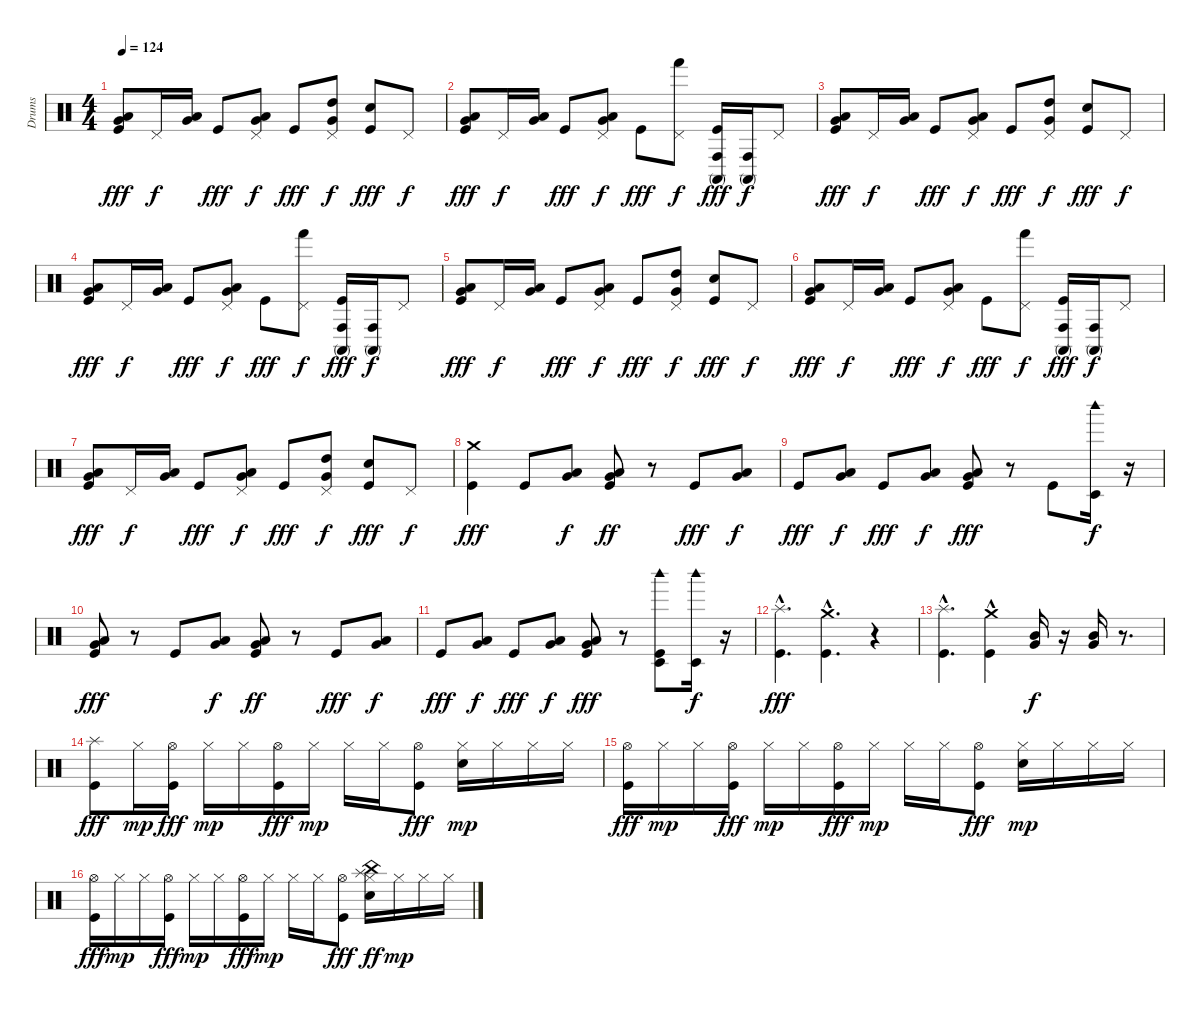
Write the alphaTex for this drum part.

\track ("Drums" "Drums") {instrument percussion}
\staff {score}
\articulation defaults
\ts (4 4)
\tempo 124
\clef neutral
\ks c
("Kick (hit)" "Very Low Tom (hit)" "Low Tom (hit)").8{dy fff} "Pedal Hi-Hat (hit)".16{dy f} ("Very Low Tom (hit)" "Low Tom (hit)").16 "Kick (hit)".8{dy fff} ("Pedal Hi-Hat (hit)" "Very Low Tom (hit)" "Low Tom (hit)").8{dy f} "Kick (hit)".8{dy fff} ("Pedal Hi-Hat (hit)" "High Tom (hit)" "Very Low Tom (hit)").8{dy f} ("Kick (hit)" "Electric Snare (hit)").8{dy fff} "Pedal Hi-Hat (hit)".8{dy f} |
("Kick (hit)" "Very Low Tom (hit)" "Low Tom (hit)").8{dy fff} "Pedal Hi-Hat (hit)".16{dy f} ("Very Low Tom (hit)" "Low Tom (hit)").16 "Kick (hit)".8{dy fff} ("Pedal Hi-Hat (hit)" "Very Low Tom (hit)" "Low Tom (hit)").8{dy f} "Kick (hit)".8{dy fff} ("Pedal Hi-Hat (hit)" "Hand (hit)").8{dy f} ("Kick (hit)" "Conga high (mute)" "Conga high (hit)").16{dy fff} ("Conga high (mute)" "Conga high (hit)").16{dy f} "Pedal Hi-Hat (hit)".8 |
("Kick (hit)" "Very Low Tom (hit)" "Low Tom (hit)").8{dy fff} "Pedal Hi-Hat (hit)".16{dy f} ("Very Low Tom (hit)" "Low Tom (hit)").16 "Kick (hit)".8{dy fff} ("Pedal Hi-Hat (hit)" "Very Low Tom (hit)" "Low Tom (hit)").8{dy f} "Kick (hit)".8{dy fff} ("Pedal Hi-Hat (hit)" "High Tom (hit)" "Very Low Tom (hit)").8{dy f} ("Kick (hit)" "Electric Snare (hit)").8{dy fff} "Pedal Hi-Hat (hit)".8{dy f} |
("Kick (hit)" "Very Low Tom (hit)" "Low Tom (hit)").8{dy fff} "Pedal Hi-Hat (hit)".16{dy f} ("Very Low Tom (hit)" "Low Tom (hit)").16 "Kick (hit)".8{dy fff} ("Pedal Hi-Hat (hit)" "Very Low Tom (hit)" "Low Tom (hit)").8{dy f} "Kick (hit)".8{dy fff} ("Pedal Hi-Hat (hit)" "Hand (hit)").8{dy f} ("Kick (hit)" "Conga high (mute)" "Conga high (hit)").16{dy fff} ("Conga high (mute)" "Conga high (hit)").16{dy f} "Pedal Hi-Hat (hit)".8 |
("Kick (hit)" "Very Low Tom (hit)" "Low Tom (hit)").8{dy fff} "Pedal Hi-Hat (hit)".16{dy f} ("Very Low Tom (hit)" "Low Tom (hit)").16 "Kick (hit)".8{dy fff} ("Pedal Hi-Hat (hit)" "Very Low Tom (hit)" "Low Tom (hit)").8{dy f} "Kick (hit)".8{dy fff} ("Pedal Hi-Hat (hit)" "High Tom (hit)" "Very Low Tom (hit)").8{dy f} ("Kick (hit)" "Electric Snare (hit)").8{dy fff} "Pedal Hi-Hat (hit)".8{dy f} |
("Kick (hit)" "Very Low Tom (hit)" "Low Tom (hit)").8{dy fff} "Pedal Hi-Hat (hit)".16{dy f} ("Very Low Tom (hit)" "Low Tom (hit)").16 "Kick (hit)".8{dy fff} ("Pedal Hi-Hat (hit)" "Very Low Tom (hit)" "Low Tom (hit)").8{dy f} "Kick (hit)".8{dy fff} ("Pedal Hi-Hat (hit)" "Hand (hit)").8{dy f} ("Kick (hit)" "Conga high (mute)" "Conga high (hit)").16{dy fff} ("Conga high (mute)" "Conga high (hit)").16{dy f} "Pedal Hi-Hat (hit)".8 |
("Kick (hit)" "Very Low Tom (hit)" "Low Tom (hit)").8{dy fff} "Pedal Hi-Hat (hit)".16{dy f} ("Very Low Tom (hit)" "Low Tom (hit)").16 "Kick (hit)".8{dy fff} ("Pedal Hi-Hat (hit)" "Very Low Tom (hit)" "Low Tom (hit)").8{dy f} "Kick (hit)".8{dy fff} ("Pedal Hi-Hat (hit)" "High Tom (hit)" "Very Low Tom (hit)").8{dy f} ("Kick (hit)" "Electric Snare (hit)").8{dy fff} "Pedal Hi-Hat (hit)".8{dy f} |
("Kick (hit)" "Crash medium (hit)").4{dy fff} "Kick (hit)".8 ("Very Low Tom (hit)" "Low Tom (hit)").8{dy f} ("Kick (hit)" "Very Low Tom (hit)" "Low Tom (hit)").8{dy ff} r.8 "Kick (hit)".8{dy fff} ("Very Low Tom (hit)" "Low Tom (hit)").8{dy f} |
"Kick (hit)".8{dy fff} ("Very Low Tom (hit)" "Low Tom (hit)").8{dy f} "Kick (hit)".8{dy fff} ("Very Low Tom (hit)" "Low Tom (hit)").8{dy f} ("Kick (hit)" "Very Low Tom (hit)" "Low Tom (hit)").8{dy fff} r.8 "Kick (hit)".8 ("Timbale low (hit)" "Woodblock high (hit)").16{dy f} r.16 |
("Kick (hit)" "Very Low Tom (hit)" "Low Tom (hit)").8{dy fff} r.8 "Kick (hit)".8 ("Very Low Tom (hit)" "Low Tom (hit)").8{dy f} ("Kick (hit)" "Very Low Tom (hit)" "Low Tom (hit)").8{dy ff} r.8 "Kick (hit)".8{dy fff} ("Very Low Tom (hit)" "Low Tom (hit)").8{dy f} |
"Kick (hit)".8{dy fff} ("Very Low Tom (hit)" "Low Tom (hit)").8{dy f} "Kick (hit)".8{dy fff} ("Very Low Tom (hit)" "Low Tom (hit)").8{dy f} ("Kick (hit)" "Very Low Tom (hit)" "Low Tom (hit)").8{dy fff} r.8 ("Kick (hit)" "Woodblock high (hit)" "Timbale low (hit)").8 ("Woodblock high (hit)" "Timbale low (hit)").16{dy f} r.16 |
("Kick (hit)" "Splash (hit)"{hac}).4{d dy fff} ("Kick (hit)" "Crash medium (hit)"{hac}).4{d} r.4 |
("Kick (hit)" "Splash (hit)"{hac}).4{d} ("Kick (hit)" "Crash medium (hit)"{hac}).4 ("Mid Tom (hit)" "Very Low Tom (hit)").16{dy f} r.16 ("Mid Tom (hit)" "Very Low Tom (hit)").16 r.8{d} |
("Kick (hit)" "Splash (hit)").8{dy fff} "Hi-Hat (closed)".16{dy mp} ("Kick (hit)" "Hi-Hat (open)").16{dy fff} "Hi-Hat (closed)".16{dy mp} "Hi-Hat (closed)".16 ("Kick (hit)" "Hi-Hat (open)").16{dy fff} "Hi-Hat (closed)".16{dy mp} "Hi-Hat (closed)".16 "Hi-Hat (closed)".16 ("Kick (hit)" "Hi-Hat (open)").8{dy fff} ("Electric Snare (hit)" "Hi-Hat (closed)").16{dy mp} "Hi-Hat (closed)".16 "Hi-Hat (closed)".16 "Hi-Hat (closed)".16 |
("Kick (hit)" "Hi-Hat (open)").16{dy fff} "Hi-Hat (closed)".16{dy mp} "Hi-Hat (closed)".16 ("Kick (hit)" "Hi-Hat (open)").16{dy fff} "Hi-Hat (closed)".16{dy mp} "Hi-Hat (closed)".16 ("Kick (hit)" "Hi-Hat (open)").16{dy fff} "Hi-Hat (closed)".16{dy mp} "Hi-Hat (closed)".16 "Hi-Hat (closed)".16 ("Kick (hit)" "Hi-Hat (open)").8{dy fff} ("Electric Snare (hit)" "Hi-Hat (closed)").16{dy mp} "Hi-Hat (closed)".16 "Hi-Hat (closed)".16 "Hi-Hat (closed)".16 |
("Kick (hit)" "Hi-Hat (open)").16{dy fff} "Hi-Hat (closed)".16{dy mp} "Hi-Hat (closed)".16 ("Kick (hit)" "Hi-Hat (open)").16{dy fff} "Hi-Hat (closed)".16{dy mp} "Hi-Hat (closed)".16 ("Kick (hit)" "Hi-Hat (open)").16{dy fff} "Hi-Hat (closed)".16{dy mp} "Hi-Hat (closed)".16 "Hi-Hat (closed)".16 ("Kick (hit)" "Hi-Hat (open)").8{dy fff} ("Electric Snare (hit)" "Hi-Hat (closed)" "China (hit)" "Splash (hit)").16{dy ff} "Hi-Hat (closed)".16{dy mp} "Hi-Hat (closed)".16 "Hi-Hat (closed)".16
